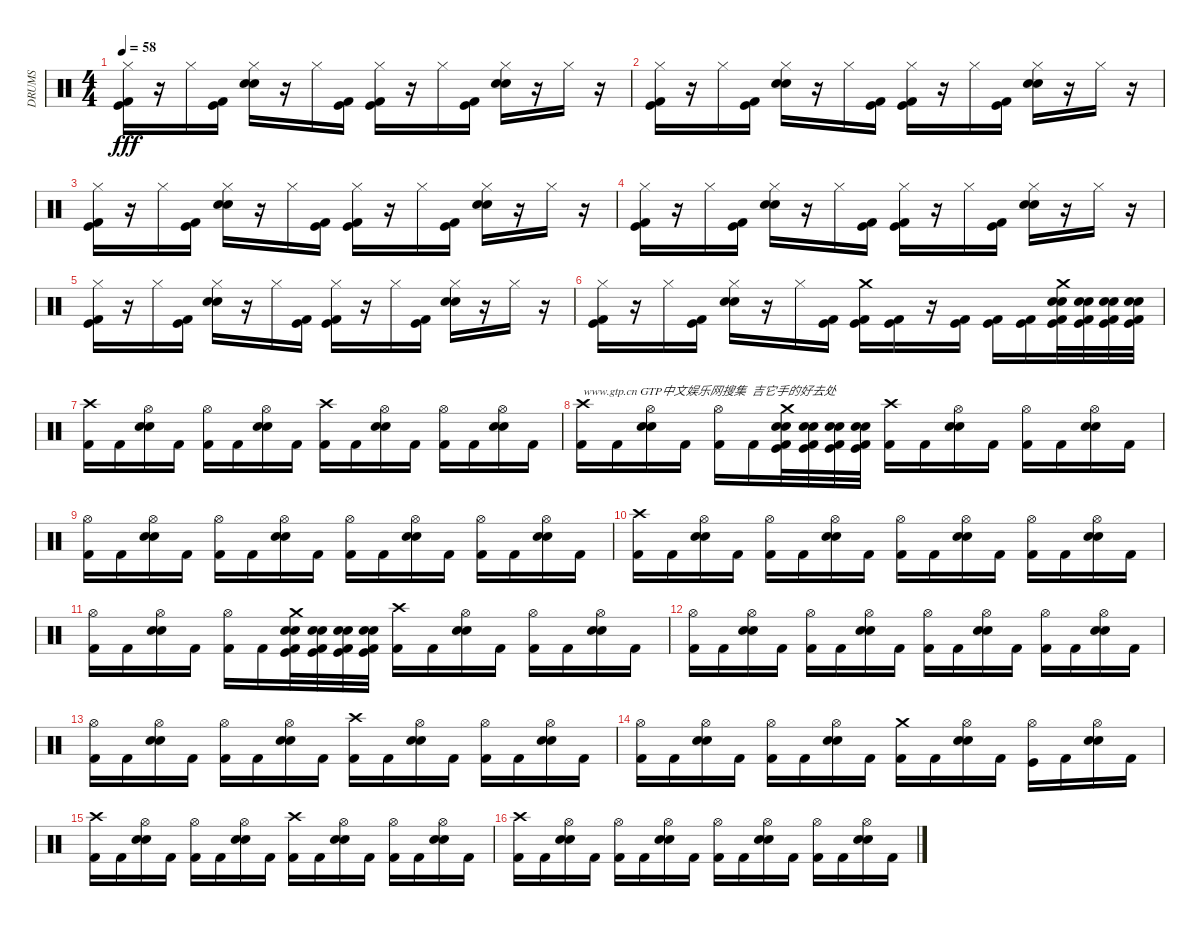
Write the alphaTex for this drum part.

\track ("DRUMS" "DRUMS") {instrument percussion}
\staff {score}
\articulation defaults
\ts (4 4)
\tempo 58
\clef neutral
\ks c
("Kick (hit) 2" "Hi-Hat (closed)" "Kick (hit)").16{dy fff} r.16 "Hi-Hat (closed)".16 ("Kick (hit) 2" "Kick (hit)").16 ("Electric Snare (hit)" "Hi-Hat (closed)" "Snare (hit) 2").16 r.16 "Hi-Hat (closed)".16 ("Kick (hit) 2" "Kick (hit)").16 ("Kick (hit) 2" "Hi-Hat (closed)" "Kick (hit)").16 r.16 "Hi-Hat (closed)".16 ("Kick (hit) 2" "Kick (hit)").16 ("Electric Snare (hit)" "Hi-Hat (closed)" "Snare (hit) 2").16 r.16 "Hi-Hat (closed)".16 r.16 |
("Kick (hit) 2" "Hi-Hat (closed)" "Kick (hit)").16 r.16 "Hi-Hat (closed)".16 ("Kick (hit) 2" "Kick (hit)").16 ("Electric Snare (hit)" "Hi-Hat (closed)" "Snare (hit) 2").16 r.16 "Hi-Hat (closed)".16 ("Kick (hit) 2" "Kick (hit)").16 ("Kick (hit) 2" "Hi-Hat (closed)" "Kick (hit)").16 r.16 "Hi-Hat (closed)".16 ("Kick (hit) 2" "Kick (hit)").16 ("Electric Snare (hit)" "Hi-Hat (closed)" "Snare (hit) 2").16 r.16 "Hi-Hat (closed)".16 r.16 |
("Kick (hit) 2" "Hi-Hat (closed)" "Kick (hit)").16 r.16 "Hi-Hat (closed)".16 ("Kick (hit) 2" "Kick (hit)").16 ("Electric Snare (hit)" "Hi-Hat (closed)" "Snare (hit) 2").16 r.16 "Hi-Hat (closed)".16 ("Kick (hit) 2" "Kick (hit)").16 ("Kick (hit) 2" "Hi-Hat (closed)" "Kick (hit)").16 r.16 "Hi-Hat (closed)".16 ("Kick (hit) 2" "Kick (hit)").16 ("Electric Snare (hit)" "Hi-Hat (closed)" "Snare (hit) 2").16 r.16 "Hi-Hat (closed)".16 r.16 |
("Kick (hit) 2" "Hi-Hat (closed)" "Kick (hit)").16 r.16 "Hi-Hat (closed)".16 ("Kick (hit) 2" "Kick (hit)").16 ("Electric Snare (hit)" "Hi-Hat (closed)" "Snare (hit) 2").16 r.16 "Hi-Hat (closed)".16 ("Kick (hit) 2" "Kick (hit)").16 ("Kick (hit) 2" "Hi-Hat (closed)" "Kick (hit)").16 r.16 "Hi-Hat (closed)".16 ("Kick (hit) 2" "Kick (hit)").16 ("Electric Snare (hit)" "Hi-Hat (closed)" "Snare (hit) 2").16 r.16 "Hi-Hat (closed)".16 r.16 |
("Kick (hit) 2" "Hi-Hat (closed)" "Kick (hit)").16 r.16 "Hi-Hat (closed)".16 ("Kick (hit) 2" "Kick (hit)").16 ("Electric Snare (hit)" "Hi-Hat (closed)" "Snare (hit) 2").16 r.16 "Hi-Hat (closed)".16 ("Kick (hit) 2" "Kick (hit)").16 ("Kick (hit) 2" "Hi-Hat (closed)" "Kick (hit)").16 r.16 "Hi-Hat (closed)".16 ("Kick (hit) 2" "Kick (hit)").16 ("Electric Snare (hit)" "Hi-Hat (closed)" "Snare (hit) 2").16 r.16 "Hi-Hat (closed)".16 r.16 |
("Kick (hit) 2" "Hi-Hat (closed)" "Kick (hit)").16 r.16 "Hi-Hat (closed)".16 ("Kick (hit) 2" "Kick (hit)").16 ("Electric Snare (hit)" "Hi-Hat (closed)" "Snare (hit) 2").16 r.16 "Hi-Hat (closed)".16 ("Kick (hit) 2" "Kick (hit)").16 ("Kick (hit) 2" "Crash medium (hit)" "Kick (hit)").16 ("Kick (hit) 2" "Kick (hit)").16 r.16 ("Kick (hit) 2" "Kick (hit)").16 ("Kick (hit) 2" "Kick (hit)").16 ("Kick (hit) 2" "Kick (hit)").16 ("Kick (hit) 2" "Kick (hit)" "Snare (hit) 2" "Electric Snare (hit)" "Crash medium (hit)").32 ("Kick (hit) 2" "Kick (hit)" "Snare (hit) 2" "Electric Snare (hit)").32 ("Kick (hit) 2" "Kick (hit)" "Snare (hit) 2" "Electric Snare (hit)").32 ("Kick (hit) 2" "Kick (hit)" "Snare (hit) 2" "Electric Snare (hit)").32 |
("Crash high (hit)" "Kick (hit) 2").16 "Kick (hit) 2".16 ("Hi-Hat (open)" "Electric Snare (hit)" "Snare (hit) 2").16 "Kick (hit) 2".16 ("Hi-Hat (open)" "Kick (hit) 2").16 "Kick (hit) 2".16 ("Hi-Hat (open)" "Electric Snare (hit)" "Snare (hit) 2").16 "Kick (hit) 2".16 ("Crash high (hit)" "Kick (hit) 2").16 "Kick (hit) 2".16 ("Hi-Hat (open)" "Electric Snare (hit)" "Snare (hit) 2").16 "Kick (hit) 2".16 ("Hi-Hat (open)" "Kick (hit) 2").16 "Kick (hit) 2".16 ("Hi-Hat (open)" "Electric Snare (hit)" "Snare (hit) 2").16 "Kick (hit) 2".16 |
("Crash high (hit)" "Kick (hit) 2").16{txt "www.gtp.cn GTP中文娱乐网搜集  吉它手的好去处"} "Kick (hit) 2".16 ("Hi-Hat (open)" "Electric Snare (hit)" "Snare (hit) 2").16 "Kick (hit) 2".16 ("Hi-Hat (open)" "Kick (hit) 2").16 "Kick (hit) 2".16 ("Crash medium (hit)" "Electric Snare (hit)" "Snare (hit) 2" "Kick (hit)" "Kick (hit) 2").32 ("Electric Snare (hit)" "Snare (hit) 2" "Kick (hit)" "Kick (hit) 2").32 ("Electric Snare (hit)" "Snare (hit) 2" "Kick (hit)" "Kick (hit) 2").32 ("Electric Snare (hit)" "Snare (hit) 2" "Kick (hit)" "Kick (hit) 2").32 ("Crash high (hit)" "Kick (hit) 2").16 "Kick (hit) 2".16 ("Hi-Hat (open)" "Electric Snare (hit)" "Snare (hit) 2").16 "Kick (hit) 2".16 ("Hi-Hat (open)" "Kick (hit) 2").16 "Kick (hit) 2".16 ("Hi-Hat (open)" "Electric Snare (hit)" "Snare (hit) 2").16 "Kick (hit) 2".16 |
("Hi-Hat (open)" "Kick (hit) 2").16 "Kick (hit) 2".16 ("Hi-Hat (open)" "Electric Snare (hit)" "Snare (hit) 2").16 "Kick (hit) 2".16 ("Hi-Hat (open)" "Kick (hit) 2").16 "Kick (hit) 2".16 ("Hi-Hat (open)" "Electric Snare (hit)" "Snare (hit) 2").16 "Kick (hit) 2".16 ("Hi-Hat (open)" "Kick (hit) 2").16 "Kick (hit) 2".16 ("Hi-Hat (open)" "Electric Snare (hit)" "Snare (hit) 2").16 "Kick (hit) 2".16 ("Hi-Hat (open)" "Kick (hit) 2").16 "Kick (hit) 2".16 ("Hi-Hat (open)" "Electric Snare (hit)" "Snare (hit) 2").16 "Kick (hit) 2".16 |
("Crash high (hit)" "Kick (hit) 2").16 "Kick (hit) 2".16 ("Hi-Hat (open)" "Electric Snare (hit)" "Snare (hit) 2").16 "Kick (hit) 2".16 ("Hi-Hat (open)" "Kick (hit) 2").16 "Kick (hit) 2".16 ("Hi-Hat (open)" "Electric Snare (hit)" "Snare (hit) 2").16 "Kick (hit) 2".16 ("Hi-Hat (open)" "Kick (hit) 2").16 "Kick (hit) 2".16 ("Hi-Hat (open)" "Electric Snare (hit)" "Snare (hit) 2").16 "Kick (hit) 2".16 ("Hi-Hat (open)" "Kick (hit) 2").16 "Kick (hit) 2".16 ("Hi-Hat (open)" "Electric Snare (hit)" "Snare (hit) 2").16 "Kick (hit) 2".16 |
("Hi-Hat (open)" "Kick (hit) 2").16 "Kick (hit) 2".16 ("Hi-Hat (open)" "Electric Snare (hit)" "Snare (hit) 2").16 "Kick (hit) 2".16 ("Hi-Hat (open)" "Kick (hit) 2").16 "Kick (hit) 2".16 ("Crash medium (hit)" "Electric Snare (hit)" "Snare (hit) 2" "Kick (hit)" "Kick (hit) 2").32 ("Electric Snare (hit)" "Snare (hit) 2" "Kick (hit)" "Kick (hit) 2").32 ("Electric Snare (hit)" "Snare (hit) 2" "Kick (hit)" "Kick (hit) 2").32 ("Electric Snare (hit)" "Snare (hit) 2" "Kick (hit)" "Kick (hit) 2").32 ("Crash high (hit)" "Kick (hit) 2").16 "Kick (hit) 2".16 ("Hi-Hat (open)" "Electric Snare (hit)" "Snare (hit) 2").16 "Kick (hit) 2".16 ("Hi-Hat (open)" "Kick (hit) 2").16 "Kick (hit) 2".16 ("Hi-Hat (open)" "Electric Snare (hit)" "Snare (hit) 2").16 "Kick (hit) 2".16 |
("Hi-Hat (open)" "Kick (hit) 2").16 "Kick (hit) 2".16 ("Hi-Hat (open)" "Electric Snare (hit)" "Snare (hit) 2").16 "Kick (hit) 2".16 ("Hi-Hat (open)" "Kick (hit) 2").16 "Kick (hit) 2".16 ("Hi-Hat (open)" "Electric Snare (hit)" "Snare (hit) 2").16 "Kick (hit) 2".16 ("Hi-Hat (open)" "Kick (hit) 2").16 "Kick (hit) 2".16 ("Hi-Hat (open)" "Electric Snare (hit)" "Snare (hit) 2").16 "Kick (hit) 2".16 ("Hi-Hat (open)" "Kick (hit) 2").16 "Kick (hit) 2".16 ("Hi-Hat (open)" "Electric Snare (hit)" "Snare (hit) 2").16 "Kick (hit) 2".16 |
("Hi-Hat (open)" "Kick (hit) 2").16 "Kick (hit) 2".16 ("Hi-Hat (open)" "Electric Snare (hit)" "Snare (hit) 2").16 "Kick (hit) 2".16 ("Hi-Hat (open)" "Kick (hit) 2").16 "Kick (hit) 2".16 ("Hi-Hat (open)" "Electric Snare (hit)" "Snare (hit) 2").16 "Kick (hit) 2".16 ("Crash high (hit)" "Kick (hit) 2").16 "Kick (hit) 2".16 ("Hi-Hat (open)" "Electric Snare (hit)" "Snare (hit) 2").16 "Kick (hit) 2".16 ("Hi-Hat (open)" "Kick (hit) 2").16 "Kick (hit) 2".16 ("Hi-Hat (open)" "Electric Snare (hit)" "Snare (hit) 2").16 "Kick (hit) 2".16 |
("Hi-Hat (open)" "Kick (hit) 2").16 "Kick (hit) 2".16 ("Hi-Hat (open)" "Electric Snare (hit)" "Snare (hit) 2").16 "Kick (hit) 2".16 ("Hi-Hat (open)" "Kick (hit) 2").16 "Kick (hit) 2".16 ("Hi-Hat (open)" "Electric Snare (hit)" "Snare (hit) 2").16 "Kick (hit) 2".16 ("Crash medium (hit)" "Kick (hit) 2").16 "Kick (hit) 2".16 ("Hi-Hat (open)" "Electric Snare (hit)" "Snare (hit) 2").16 "Kick (hit) 2".16 ("Hi-Hat (open)" "Kick (hit)").16 "Kick (hit) 2".16 ("Hi-Hat (open)" "Electric Snare (hit)" "Snare (hit) 2").16 "Kick (hit) 2".16 |
("Crash high (hit)" "Kick (hit) 2").16 "Kick (hit) 2".16 ("Hi-Hat (open)" "Electric Snare (hit)" "Snare (hit) 2").16 "Kick (hit) 2".16 ("Hi-Hat (open)" "Kick (hit) 2").16 "Kick (hit) 2".16 ("Hi-Hat (open)" "Electric Snare (hit)" "Snare (hit) 2").16 "Kick (hit) 2".16 ("Crash high (hit)" "Kick (hit) 2").16 "Kick (hit) 2".16 ("Hi-Hat (open)" "Electric Snare (hit)" "Snare (hit) 2").16 "Kick (hit) 2".16 ("Hi-Hat (open)" "Kick (hit) 2").16 "Kick (hit) 2".16 ("Hi-Hat (open)" "Electric Snare (hit)" "Snare (hit) 2").16 "Kick (hit) 2".16 |
("Crash high (hit)" "Kick (hit) 2").16 "Kick (hit) 2".16 ("Hi-Hat (open)" "Electric Snare (hit)" "Snare (hit) 2").16 "Kick (hit) 2".16 ("Hi-Hat (open)" "Kick (hit) 2").16 "Kick (hit) 2".16 ("Hi-Hat (open)" "Electric Snare (hit)" "Snare (hit) 2").16 "Kick (hit) 2".16 ("Hi-Hat (open)" "Kick (hit) 2").16 "Kick (hit) 2".16 ("Hi-Hat (open)" "Electric Snare (hit)" "Snare (hit) 2").16 "Kick (hit) 2".16 ("Hi-Hat (open)" "Kick (hit) 2").16 "Kick (hit) 2".16 ("Hi-Hat (open)" "Electric Snare (hit)" "Snare (hit) 2").16 "Kick (hit) 2".16
